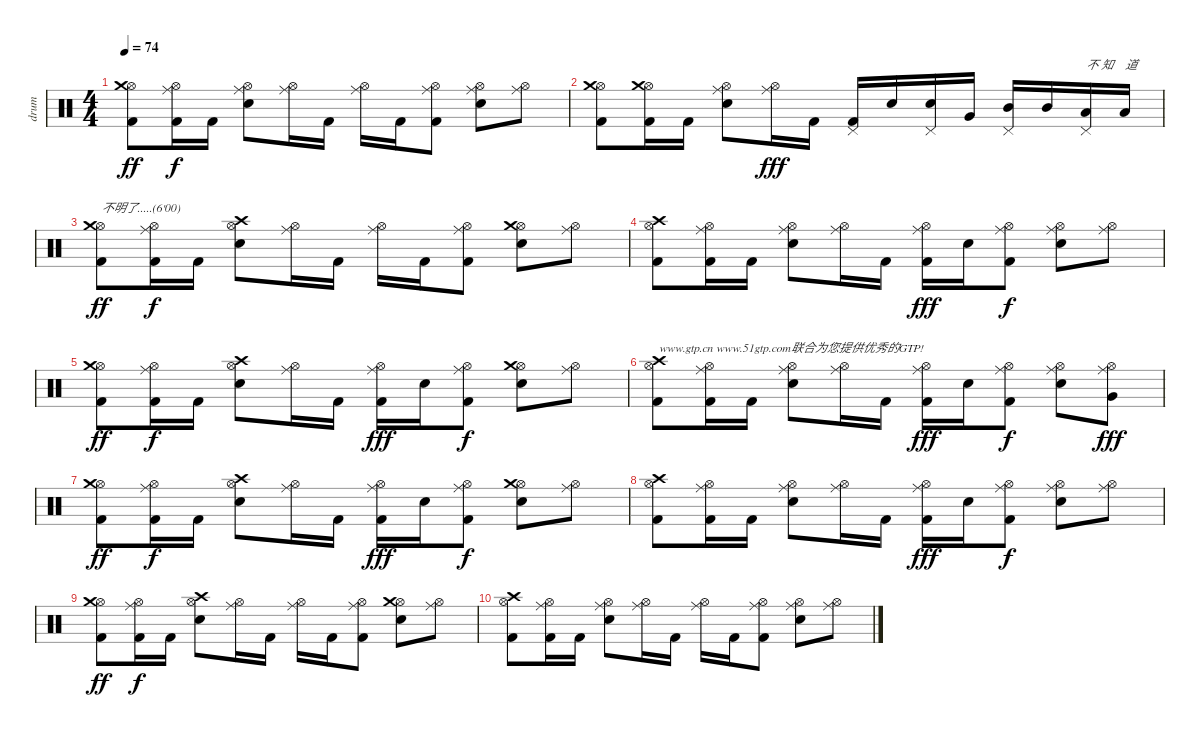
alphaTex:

\track ("drum" "drum") {instrument percussion}
\staff {score}
\articulation defaults
\ts (4 4)
\tempo 74
\clef neutral
\ks c
("Hi-Hat (open)" "Crash medium (hit)" "Kick (hit) 2").8{dy ff} ("Hi-Hat (open)" "Ride (middle)" "Kick (hit) 2").16{dy f} "Kick (hit) 2".16 ("Hi-Hat (open)" "Ride (middle)" "Snare (hit) 2").8 ("Hi-Hat (open)" "Ride (middle)").16 "Kick (hit) 2".16 ("Hi-Hat (open)" "Ride (middle)").16 "Kick (hit) 2".16 ("Hi-Hat (open)" "Ride (middle)" "Kick (hit) 2").8 ("Hi-Hat (open)" "Ride (middle)" "Snare (hit) 2").8 ("Hi-Hat (open)" "Ride (middle)").8 |
("Hi-Hat (open)" "Crash medium (hit)" "Kick (hit) 2").8 ("Hi-Hat (open)" "Crash medium (hit)" "Kick (hit) 2").16 "Kick (hit) 2".16 ("Hi-Hat (open)" "Ride (middle)" "Snare (hit) 2").8 ("Hi-Hat (open)" "Ride (middle)").16{dy fff} "Kick (hit) 2".16 ("Pedal Hi-Hat (hit)" "Kick (hit) 2").16 "Snare (hit) 2".16 ("Pedal Hi-Hat (hit)" "Snare (hit) 2").16 "Very Low Tom (hit)".16 ("Pedal Hi-Hat (hit)" "Mid Tom (hit)").16 "Mid Tom (hit)".16 ("Pedal Hi-Hat (hit)" "Low Tom (hit)").16{txt "不 知    道"} "Low Tom (hit)".16 |
("Hi-Hat (open)" "Crash medium (hit)" "Kick (hit) 2").8{txt "不明了.....(6'00)" dy ff} ("Hi-Hat (open)" "Ride (middle)" "Kick (hit) 2").16{dy f} "Kick (hit) 2".16 ("Hi-Hat (open)" "Crash high (hit)" "Snare (hit) 2").8 ("Hi-Hat (open)" "Ride (middle)").16 "Kick (hit) 2".16 ("Hi-Hat (open)" "Ride (middle)").16 "Kick (hit) 2".16 ("Hi-Hat (open)" "Ride (middle)" "Kick (hit) 2").8 ("Hi-Hat (open)" "Crash medium (hit)" "Snare (hit) 2").8 ("Hi-Hat (open)" "Ride (middle)").8 |
("Hi-Hat (open)" "Crash high (hit)" "Kick (hit) 2").8 ("Hi-Hat (open)" "Ride (middle)" "Kick (hit) 2").16 "Kick (hit) 2".16 ("Hi-Hat (open)" "Ride (middle)" "Snare (hit) 2").8 ("Hi-Hat (open)" "Ride (middle)").16 "Kick (hit) 2".16 ("Hi-Hat (open)" "Ride (middle)" "Kick (hit) 2").16{dy fff} "Snare (hit) 2".16 ("Hi-Hat (open)" "Ride (middle)" "Kick (hit) 2").8{dy f} ("Hi-Hat (open)" "Ride (middle)" "Snare (hit) 2").8 ("Hi-Hat (open)" "Ride (middle)").8 |
("Hi-Hat (open)" "Crash medium (hit)" "Kick (hit) 2").8{dy ff} ("Hi-Hat (open)" "Ride (middle)" "Kick (hit) 2").16{dy f} "Kick (hit) 2".16 ("Hi-Hat (open)" "Crash high (hit)" "Snare (hit) 2").8 ("Hi-Hat (open)" "Ride (middle)").16 "Kick (hit) 2".16 ("Hi-Hat (open)" "Ride (middle)" "Kick (hit) 2").16{dy fff} "Snare (hit) 2".16 ("Hi-Hat (open)" "Ride (middle)" "Kick (hit) 2").8{dy f} ("Hi-Hat (open)" "Crash medium (hit)" "Snare (hit) 2").8 ("Hi-Hat (open)" "Ride (middle)").8 |
("Hi-Hat (open)" "Crash high (hit)" "Kick (hit) 2").8{txt "www.gtp.cn www.51gtp.com联合为您提供优秀的GTP!"} ("Hi-Hat (open)" "Ride (middle)" "Kick (hit) 2").16 "Kick (hit) 2".16 ("Hi-Hat (open)" "Ride (middle)" "Snare (hit) 2").8 ("Hi-Hat (open)" "Ride (middle)").16 "Kick (hit) 2".16 ("Hi-Hat (open)" "Ride (middle)" "Kick (hit) 2").16{dy fff} "Snare (hit) 2".16 ("Hi-Hat (open)" "Ride (middle)" "Kick (hit) 2").8{dy f} ("Hi-Hat (open)" "Ride (middle)" "Snare (hit) 2").8 ("Hi-Hat (open)" "Ride (middle)" "Very Low Tom (hit)").8{dy fff} |
("Hi-Hat (open)" "Crash medium (hit)" "Kick (hit) 2").8{dy ff} ("Hi-Hat (open)" "Ride (middle)" "Kick (hit) 2").16{dy f} "Kick (hit) 2".16 ("Hi-Hat (open)" "Crash high (hit)" "Snare (hit) 2").8 ("Hi-Hat (open)" "Ride (middle)").16 "Kick (hit) 2".16 ("Hi-Hat (open)" "Ride (middle)" "Kick (hit) 2").16{dy fff} "Snare (hit) 2".16 ("Hi-Hat (open)" "Ride (middle)" "Kick (hit) 2").8{dy f} ("Hi-Hat (open)" "Crash medium (hit)" "Snare (hit) 2").8 ("Hi-Hat (open)" "Ride (middle)").8 |
("Hi-Hat (open)" "Crash high (hit)" "Kick (hit) 2").8 ("Hi-Hat (open)" "Ride (middle)" "Kick (hit) 2").16 "Kick (hit) 2".16 ("Hi-Hat (open)" "Ride (middle)" "Snare (hit) 2").8 ("Hi-Hat (open)" "Ride (middle)").16 "Kick (hit) 2".16 ("Hi-Hat (open)" "Ride (middle)" "Kick (hit) 2").16{dy fff} "Snare (hit) 2".16 ("Hi-Hat (open)" "Ride (middle)" "Kick (hit) 2").8{dy f} ("Hi-Hat (open)" "Ride (middle)" "Snare (hit) 2").8 ("Hi-Hat (open)" "Ride (middle)").8 |
("Hi-Hat (open)" "Crash medium (hit)" "Kick (hit) 2").8{dy ff} ("Hi-Hat (open)" "Ride (middle)" "Kick (hit) 2").16{dy f} "Kick (hit) 2".16 ("Hi-Hat (open)" "Crash high (hit)" "Snare (hit) 2").8 ("Hi-Hat (open)" "Ride (middle)").16 "Kick (hit) 2".16 ("Hi-Hat (open)" "Ride (middle)").16 "Kick (hit) 2".16 ("Hi-Hat (open)" "Ride (middle)" "Kick (hit) 2").8 ("Hi-Hat (open)" "Crash medium (hit)" "Snare (hit) 2").8 ("Hi-Hat (open)" "Ride (middle)").8 |
("Hi-Hat (open)" "Crash high (hit)" "Kick (hit) 2").8 ("Hi-Hat (open)" "Ride (middle)" "Kick (hit) 2").16 "Kick (hit) 2".16 ("Hi-Hat (open)" "Ride (middle)" "Snare (hit) 2").8 ("Hi-Hat (open)" "Ride (middle)").16 "Kick (hit) 2".16 ("Hi-Hat (open)" "Ride (middle)").16 "Kick (hit) 2".16 ("Hi-Hat (open)" "Ride (middle)" "Kick (hit) 2").8 ("Hi-Hat (open)" "Ride (middle)" "Snare (hit) 2").8 ("Hi-Hat (open)" "Ride (middle)").8
